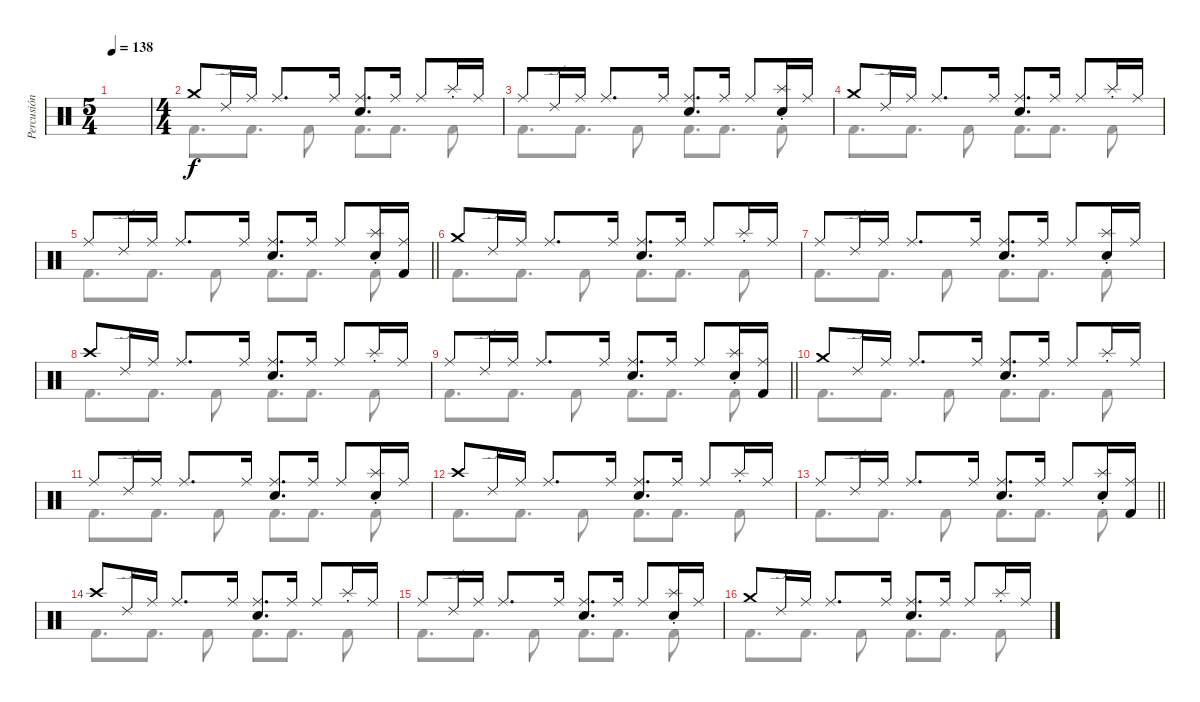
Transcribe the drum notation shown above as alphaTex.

\track ("Percusión" "Percusión") {instrument percussion}
\staff {score}
\articulation defaults
\voice
\ts (5 4)
\tempo 138
\clef neutral
\ks c
|
\ts (4 4)
"Crash medium (hit)".8 "Ride (edge) 2".16 "Ride (middle)".16 "Ride (middle)".8{d} "Ride (middle)".16 ("Electric Snare (hit)" "Ride (middle)").8{d} "Ride (middle)".16 "Ride (middle)".8 "Splash (choke)".16 "Ride (middle)".16 |
"Ride (middle)".8 "Ride (edge) 2".16 "Ride (middle)".16 "Ride (middle)".8{d} "Ride (middle)".16 ("Electric Snare (hit)" "Ride (middle)").8{d} "Ride (middle)".16 "Ride (middle)".8 ("Electric Snare (hit)" "Splash (choke)").16 "Ride (middle)".16 |
"Crash medium (hit)".8 "Ride (edge) 2".16 "Ride (middle)".16 "Ride (middle)".8{d} "Ride (middle)".16 ("Electric Snare (hit)" "Ride (middle)").8{d} "Ride (middle)".16 "Ride (middle)".8 "Splash (choke)".16 "Ride (middle)".16 |
\barLineRight lightlight "Ride (middle)".8 "Ride (edge) 2".16 "Ride (middle)".16 "Ride (middle)".8{d} "Ride (middle)".16
("Electric Snare (hit)" "Ride (middle)").8{d} "Ride (middle)".16 "Ride (middle)".8 ("Electric Snare (hit)" "Splash (choke)").16 ("Kick (hit) 2" "Ride (middle)").16 |
"Crash medium (hit)".8 "Ride (edge) 2".16 "Ride (middle)".16 "Ride (middle)".8{d} "Ride (middle)".16 ("Electric Snare (hit)" "Ride (middle)").8{d} "Ride (middle)".16 "Ride (middle)".8 "Splash (choke)".16 "Ride (middle)".16 |
"Ride (middle)".8 "Ride (edge) 2".16 "Ride (middle)".16 "Ride (middle)".8{d} "Ride (middle)".16 ("Electric Snare (hit)" "Ride (middle)").8{d} "Ride (middle)".16 "Ride (middle)".8 ("Electric Snare (hit)" "Splash (choke)").16 "Ride (middle)".16 |
"Crash high (hit)".8 "Ride (edge) 2".16 "Ride (middle)".16 "Ride (middle)".8{d} "Ride (middle)".16 ("Electric Snare (hit)" "Ride (middle)").8{d} "Ride (middle)".16 "Ride (middle)".8 "Splash (choke)".16 "Ride (middle)".16 |
\barLineRight lightlight "Ride (middle)".8 "Ride (edge) 2".16 "Ride (middle)".16 "Ride (middle)".8{d} "Ride (middle)".16
("Electric Snare (hit)" "Ride (middle)").8{d} "Ride (middle)".16 "Ride (middle)".8 ("Electric Snare (hit)" "Splash (choke)").16 ("Kick (hit) 2" "Ride (middle)").16 |
"Crash medium (hit)".8 "Ride (edge) 2".16 "Ride (middle)".16 "Ride (middle)".8{d} "Ride (middle)".16 ("Electric Snare (hit)" "Ride (middle)").8{d} "Ride (middle)".16 "Ride (middle)".8 "Splash (choke)".16 "Ride (middle)".16 |
"Ride (middle)".8 "Ride (edge) 2".16 "Ride (middle)".16 "Ride (middle)".8{d} "Ride (middle)".16 ("Electric Snare (hit)" "Ride (middle)").8{d} "Ride (middle)".16 "Ride (middle)".8 ("Electric Snare (hit)" "Splash (choke)").16 "Ride (middle)".16 |
"Crash high (hit)".8 "Ride (edge) 2".16 "Ride (middle)".16 "Ride (middle)".8{d} "Ride (middle)".16 ("Electric Snare (hit)" "Ride (middle)").8{d} "Ride (middle)".16 "Ride (middle)".8 "Splash (choke)".16 "Ride (middle)".16 |
\barLineRight lightlight "Ride (middle)".8 "Ride (edge) 2".16 "Ride (middle)".16 "Ride (middle)".8{d} "Ride (middle)".16
("Electric Snare (hit)" "Ride (middle)").8{d} "Ride (middle)".16 "Ride (middle)".8 ("Electric Snare (hit)" "Splash (choke)").16 ("Kick (hit) 2" "Ride (middle)").16 |
"Crash high (hit)".8 "Ride (edge) 2".16 "Ride (middle)".16 "Ride (middle)".8{d} "Ride (middle)".16 ("Electric Snare (hit)" "Ride (middle)").8{d} "Ride (middle)".16 "Ride (middle)".8 "Splash (choke)".16 "Ride (middle)".16 |
"Ride (middle)".8 "Ride (edge) 2".16 "Ride (middle)".16 "Ride (middle)".8{d} "Ride (middle)".16 ("Electric Snare (hit)" "Ride (middle)").8{d} "Ride (middle)".16 "Ride (middle)".8 ("Electric Snare (hit)" "Splash (choke)").16 "Ride (middle)".16 |
"Crash medium (hit)".8 "Ride (edge) 2".16 "Ride (middle)".16 "Ride (middle)".8{d} "Ride (middle)".16 ("Electric Snare (hit)" "Ride (middle)").8{d} "Ride (middle)".16 "Ride (middle)".8 "Splash (choke)".16 "Ride (middle)".16
\voice
\clef neutral
\ottava regular
\simile none
\ks c
|
"Kick (hit) 2".8{d} "Kick (hit) 2".8{d} "Kick (hit) 2".8 "Kick (hit) 2".8{d} "Kick (hit) 2".8{d} "Kick (hit) 2".8 |
"Kick (hit) 2".8{d} "Kick (hit) 2".8{d} "Kick (hit) 2".8 "Kick (hit) 2".8{d} "Kick (hit) 2".8{d} "Kick (hit) 2".8 |
"Kick (hit) 2".8{d} "Kick (hit) 2".8{d} "Kick (hit) 2".8 "Kick (hit) 2".8{d} "Kick (hit) 2".8{d} "Kick (hit) 2".8 |
\barLineRight lightlight "Kick (hit) 2".8{d} "Kick (hit) 2".8{d} "Kick (hit) 2".8 "Kick (hit) 2".8{d} "Kick (hit) 2".8{d} "Kick (hit) 2".8
|
"Kick (hit) 2".8{d} "Kick (hit) 2".8{d} "Kick (hit) 2".8 "Kick (hit) 2".8{d} "Kick (hit) 2".8{d} "Kick (hit) 2".8 |
"Kick (hit) 2".8{d} "Kick (hit) 2".8{d} "Kick (hit) 2".8 "Kick (hit) 2".8{d} "Kick (hit) 2".8{d} "Kick (hit) 2".8 |
"Kick (hit) 2".8{d} "Kick (hit) 2".8{d} "Kick (hit) 2".8 "Kick (hit) 2".8{d} "Kick (hit) 2".8{d} "Kick (hit) 2".8 |
\barLineRight lightlight "Kick (hit) 2".8{d} "Kick (hit) 2".8{d} "Kick (hit) 2".8 "Kick (hit) 2".8{d} "Kick (hit) 2".8{d} "Kick (hit) 2".8
|
"Kick (hit) 2".8{d} "Kick (hit) 2".8{d} "Kick (hit) 2".8 "Kick (hit) 2".8{d} "Kick (hit) 2".8{d} "Kick (hit) 2".8 |
"Kick (hit) 2".8{d} "Kick (hit) 2".8{d} "Kick (hit) 2".8 "Kick (hit) 2".8{d} "Kick (hit) 2".8{d} "Kick (hit) 2".8 |
"Kick (hit) 2".8{d} "Kick (hit) 2".8{d} "Kick (hit) 2".8 "Kick (hit) 2".8{d} "Kick (hit) 2".8{d} "Kick (hit) 2".8 |
\barLineRight lightlight "Kick (hit) 2".8{d} "Kick (hit) 2".8{d} "Kick (hit) 2".8 "Kick (hit) 2".8{d} "Kick (hit) 2".8{d} "Kick (hit) 2".8
|
"Kick (hit) 2".8{d} "Kick (hit) 2".8{d} "Kick (hit) 2".8 "Kick (hit) 2".8{d} "Kick (hit) 2".8{d} "Kick (hit) 2".8 |
"Kick (hit) 2".8{d} "Kick (hit) 2".8{d} "Kick (hit) 2".8 "Kick (hit) 2".8{d} "Kick (hit) 2".8{d} "Kick (hit) 2".8 |
"Kick (hit) 2".8{d} "Kick (hit) 2".8{d} "Kick (hit) 2".8 "Kick (hit) 2".8{d} "Kick (hit) 2".8{d} "Kick (hit) 2".8
